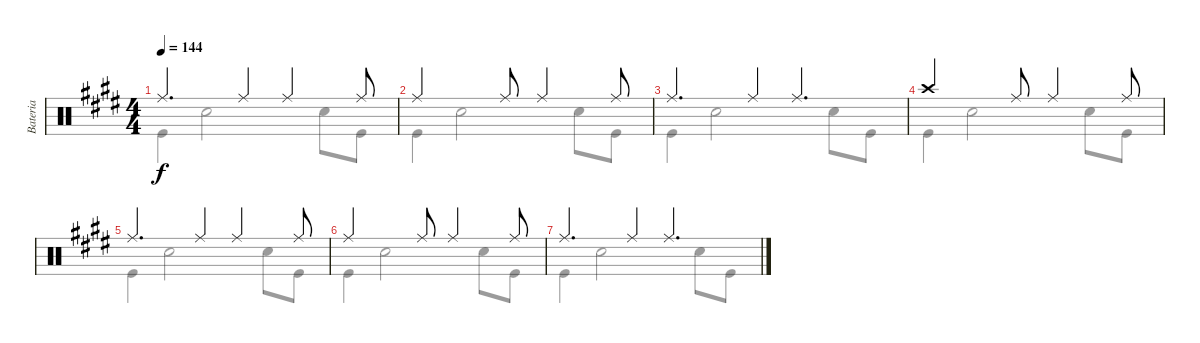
\track ("Bateria" "Bateria") {instrument percussion}
\staff {score}
\articulation defaults
\voice
\ts (4 4)
\tempo 144
\clef neutral
\ks e "Ride (middle)".4{d dy f} "Ride (middle)".4 "Ride (middle)".4 "Ride (middle)".8
|
"Ride (middle)".2 "Ride (middle)".8 "Ride (middle)".4 "Ride (middle)".8 |
"Ride (middle)".4{d} "Ride (middle)".4 "Ride (middle)".4{d} |
"Crash high (hit)".2 "Ride (middle)".8 "Ride (middle)".4 "Ride (middle)".8 |
"Ride (middle)".4{d} "Ride (middle)".4 "Ride (middle)".4 "Ride (middle)".8 |
"Ride (middle)".2 "Ride (middle)".8 "Ride (middle)".4 "Ride (middle)".8 |
"Ride (middle)".4{d} "Ride (middle)".4 "Ride (middle)".4{d}
\voice
\clef neutral
\ottava regular
\simile none
\ks e "Kick (hit)".4{dy f} "Snare (hit) 2".2 "Snare (hit) 2".8 "Kick (hit)".8
|
"Kick (hit)".4 "Snare (hit) 2".2 "Snare (hit) 2".8 "Kick (hit)".8 |
"Kick (hit)".4 "Snare (hit) 2".2 "Snare (hit) 2".8 "Kick (hit)".8 |
"Kick (hit)".4 "Snare (hit) 2".2 "Snare (hit) 2".8 "Kick (hit)".8 |
"Kick (hit)".4 "Snare (hit) 2".2 "Snare (hit) 2".8 "Kick (hit)".8 |
"Kick (hit)".4 "Snare (hit) 2".2 "Snare (hit) 2".8 "Kick (hit)".8 |
"Kick (hit)".4 "Snare (hit) 2".2 "Snare (hit) 2".8 "Kick (hit)".8
